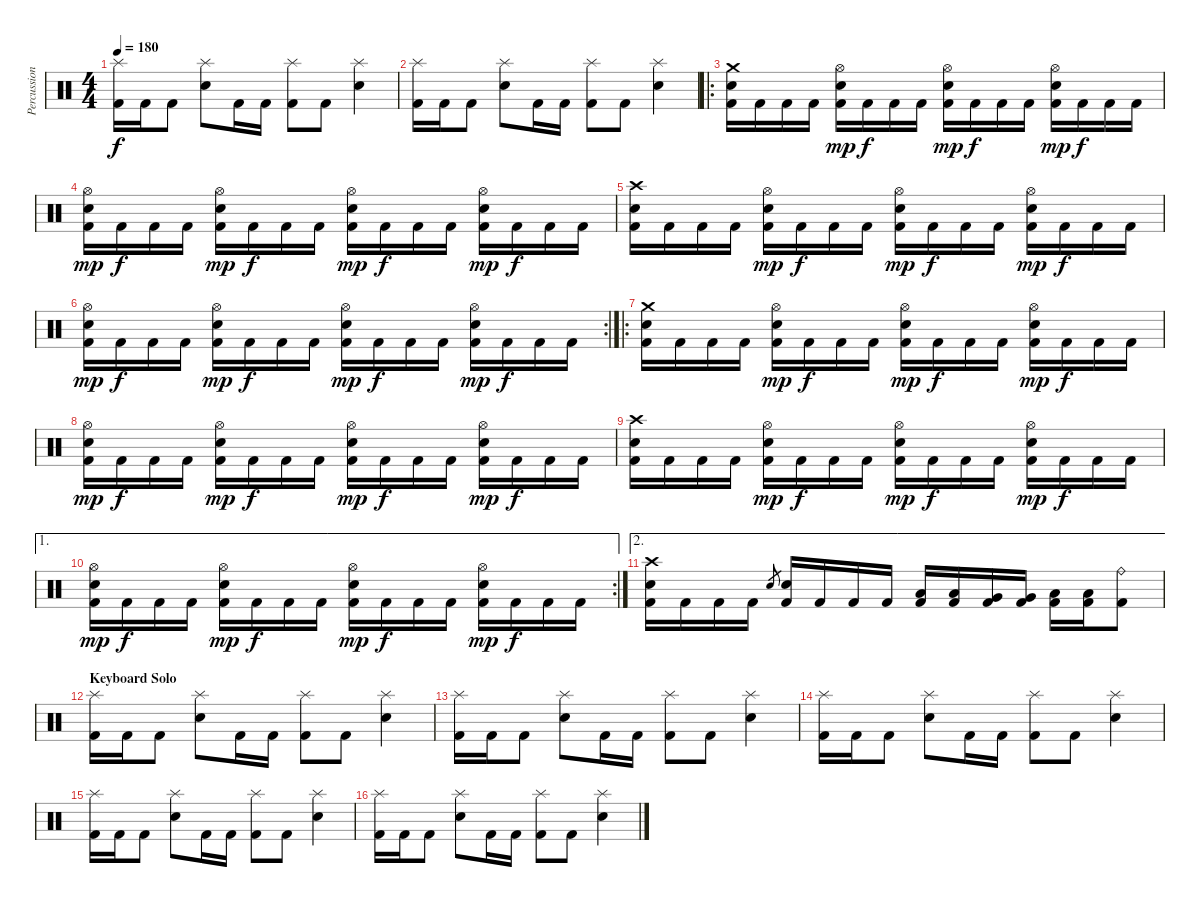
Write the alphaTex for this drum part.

\track ("Percussion" "Percussion") {instrument percussion}
\staff {score}
\articulation defaults
\ts (4 4)
\tempo 180
\clef neutral
\ks c
("Splash (hit)" "Kick (hit) 2").16{dy f} "Kick (hit) 2".16 "Kick (hit) 2".8 ("Splash (hit)" "Electric Snare (hit)").8 "Kick (hit) 2".16 "Kick (hit) 2".16 ("Splash (hit)" "Kick (hit) 2").8 "Kick (hit) 2".8 ("Splash (hit)" "Electric Snare (hit)").4 |
("Splash (hit)" "Kick (hit) 2").16 "Kick (hit) 2".16 "Kick (hit) 2".8 ("Splash (hit)" "Electric Snare (hit)").8 "Kick (hit) 2".16 "Kick (hit) 2".16 ("Splash (hit)" "Kick (hit) 2").8 "Kick (hit) 2".8 ("Splash (hit)" "Electric Snare (hit)").4 |
\ro
("Crash medium (hit)" "Electric Snare (hit)" "Kick (hit) 2").16 "Kick (hit) 2".16 "Kick (hit) 2".16 "Kick (hit) 2".16 ("Hi-Hat (open)" "Electric Snare (hit)" "Kick (hit) 2").16{dy mp} "Kick (hit) 2".16{dy f} "Kick (hit) 2".16 "Kick (hit) 2".16 ("Hi-Hat (open)" "Electric Snare (hit)" "Kick (hit) 2").16{dy mp} "Kick (hit) 2".16{dy f} "Kick (hit) 2".16 "Kick (hit) 2".16 ("Hi-Hat (open)" "Electric Snare (hit)" "Kick (hit) 2").16{dy mp} "Kick (hit) 2".16{dy f} "Kick (hit) 2".16 "Kick (hit) 2".16 |
("Hi-Hat (open)" "Electric Snare (hit)" "Kick (hit) 2").16{dy mp} "Kick (hit) 2".16{dy f} "Kick (hit) 2".16 "Kick (hit) 2".16 ("Hi-Hat (open)" "Electric Snare (hit)" "Kick (hit) 2").16{dy mp} "Kick (hit) 2".16{dy f} "Kick (hit) 2".16 "Kick (hit) 2".16 ("Hi-Hat (open)" "Electric Snare (hit)" "Kick (hit) 2").16{dy mp} "Kick (hit) 2".16{dy f} "Kick (hit) 2".16 "Kick (hit) 2".16 ("Hi-Hat (open)" "Electric Snare (hit)" "Kick (hit) 2").16{dy mp} "Kick (hit) 2".16{dy f} "Kick (hit) 2".16 "Kick (hit) 2".16 |
("Crash high (hit)" "Electric Snare (hit)" "Kick (hit) 2").16 "Kick (hit) 2".16 "Kick (hit) 2".16 "Kick (hit) 2".16 ("Hi-Hat (open)" "Electric Snare (hit)" "Kick (hit) 2").16{dy mp} "Kick (hit) 2".16{dy f} "Kick (hit) 2".16 "Kick (hit) 2".16 ("Hi-Hat (open)" "Electric Snare (hit)" "Kick (hit) 2").16{dy mp} "Kick (hit) 2".16{dy f} "Kick (hit) 2".16 "Kick (hit) 2".16 ("Hi-Hat (open)" "Electric Snare (hit)" "Kick (hit) 2").16{dy mp} "Kick (hit) 2".16{dy f} "Kick (hit) 2".16 "Kick (hit) 2".16 |
\rc 2
("Hi-Hat (open)" "Electric Snare (hit)" "Kick (hit) 2").16{dy mp} "Kick (hit) 2".16{dy f} "Kick (hit) 2".16 "Kick (hit) 2".16 ("Hi-Hat (open)" "Electric Snare (hit)" "Kick (hit) 2").16{dy mp} "Kick (hit) 2".16{dy f} "Kick (hit) 2".16 "Kick (hit) 2".16 ("Hi-Hat (open)" "Electric Snare (hit)" "Kick (hit) 2").16{dy mp} "Kick (hit) 2".16{dy f} "Kick (hit) 2".16 "Kick (hit) 2".16 ("Hi-Hat (open)" "Electric Snare (hit)" "Kick (hit) 2").16{dy mp} "Kick (hit) 2".16{dy f} "Kick (hit) 2".16 "Kick (hit) 2".16 |
\ro
("Crash medium (hit)" "Electric Snare (hit)" "Kick (hit) 2").16 "Kick (hit) 2".16 "Kick (hit) 2".16 "Kick (hit) 2".16 ("Hi-Hat (open)" "Electric Snare (hit)" "Kick (hit) 2").16{dy mp} "Kick (hit) 2".16{dy f} "Kick (hit) 2".16 "Kick (hit) 2".16 ("Hi-Hat (open)" "Electric Snare (hit)" "Kick (hit) 2").16{dy mp} "Kick (hit) 2".16{dy f} "Kick (hit) 2".16 "Kick (hit) 2".16 ("Hi-Hat (open)" "Electric Snare (hit)" "Kick (hit) 2").16{dy mp} "Kick (hit) 2".16{dy f} "Kick (hit) 2".16 "Kick (hit) 2".16 |
("Hi-Hat (open)" "Electric Snare (hit)" "Kick (hit) 2").16{dy mp} "Kick (hit) 2".16{dy f} "Kick (hit) 2".16 "Kick (hit) 2".16 ("Hi-Hat (open)" "Electric Snare (hit)" "Kick (hit) 2").16{dy mp} "Kick (hit) 2".16{dy f} "Kick (hit) 2".16 "Kick (hit) 2".16 ("Hi-Hat (open)" "Electric Snare (hit)" "Kick (hit) 2").16{dy mp} "Kick (hit) 2".16{dy f} "Kick (hit) 2".16 "Kick (hit) 2".16 ("Hi-Hat (open)" "Electric Snare (hit)" "Kick (hit) 2").16{dy mp} "Kick (hit) 2".16{dy f} "Kick (hit) 2".16 "Kick (hit) 2".16 |
("Crash high (hit)" "Electric Snare (hit)" "Kick (hit) 2").16 "Kick (hit) 2".16 "Kick (hit) 2".16 "Kick (hit) 2".16 ("Hi-Hat (open)" "Electric Snare (hit)" "Kick (hit) 2").16{dy mp} "Kick (hit) 2".16{dy f} "Kick (hit) 2".16 "Kick (hit) 2".16 ("Hi-Hat (open)" "Electric Snare (hit)" "Kick (hit) 2").16{dy mp} "Kick (hit) 2".16{dy f} "Kick (hit) 2".16 "Kick (hit) 2".16 ("Hi-Hat (open)" "Electric Snare (hit)" "Kick (hit) 2").16{dy mp} "Kick (hit) 2".16{dy f} "Kick (hit) 2".16 "Kick (hit) 2".16 |
\ae 1
\rc 2
("Hi-Hat (open)" "Electric Snare (hit)" "Kick (hit) 2").16{dy mp} "Kick (hit) 2".16{dy f} "Kick (hit) 2".16 "Kick (hit) 2".16 ("Hi-Hat (open)" "Electric Snare (hit)" "Kick (hit) 2").16{dy mp} "Kick (hit) 2".16{dy f} "Kick (hit) 2".16 "Kick (hit) 2".16 ("Hi-Hat (open)" "Electric Snare (hit)" "Kick (hit) 2").16{dy mp} "Kick (hit) 2".16{dy f} "Kick (hit) 2".16 "Kick (hit) 2".16 ("Hi-Hat (open)" "Electric Snare (hit)" "Kick (hit) 2").16{dy mp} "Kick (hit) 2".16{dy f} "Kick (hit) 2".16 "Kick (hit) 2".16 |
\ae 2
("Crash high (hit)" "Electric Snare (hit)" "Kick (hit) 2").16 "Kick (hit) 2".16 "Kick (hit) 2".16 "Kick (hit) 2".16 "Electric Snare (hit)".8{gr} ("Electric Snare (hit)" "Kick (hit) 2").16 "Kick (hit) 2".16 "Kick (hit) 2".16 "Kick (hit) 2".16 ("Low Tom (hit)" "Kick (hit) 2").16 ("Low Tom (hit)" "Kick (hit) 2").16 ("Very Low Tom (hit)" "Kick (hit) 2").16 ("Very Low Tom (hit)" "Kick (hit) 2").16 ("Low Floor Tom (hit)" "Kick (hit) 2").16 ("Low Floor Tom (hit)" "Kick (hit) 2").16 ("Ride (bell)" "Kick (hit) 2").8 |
\section ("" "Keyboard Solo")
("Splash (hit)" "Kick (hit) 2").16 "Kick (hit) 2".16 "Kick (hit) 2".8 ("Splash (hit)" "Electric Snare (hit)").8 "Kick (hit) 2".16 "Kick (hit) 2".16 ("Splash (hit)" "Kick (hit) 2").8 "Kick (hit) 2".8 ("Splash (hit)" "Electric Snare (hit)").4 |
("Splash (hit)" "Kick (hit) 2").16 "Kick (hit) 2".16 "Kick (hit) 2".8 ("Splash (hit)" "Electric Snare (hit)").8 "Kick (hit) 2".16 "Kick (hit) 2".16 ("Splash (hit)" "Kick (hit) 2").8 "Kick (hit) 2".8 ("Splash (hit)" "Electric Snare (hit)").4 |
("Splash (hit)" "Kick (hit) 2").16 "Kick (hit) 2".16 "Kick (hit) 2".8 ("Splash (hit)" "Electric Snare (hit)").8 "Kick (hit) 2".16 "Kick (hit) 2".16 ("Splash (hit)" "Kick (hit) 2").8 "Kick (hit) 2".8 ("Splash (hit)" "Electric Snare (hit)").4 |
("Splash (hit)" "Kick (hit) 2").16 "Kick (hit) 2".16 "Kick (hit) 2".8 ("Splash (hit)" "Electric Snare (hit)").8 "Kick (hit) 2".16 "Kick (hit) 2".16 ("Splash (hit)" "Kick (hit) 2").8 "Kick (hit) 2".8 ("Splash (hit)" "Electric Snare (hit)").4 |
("Splash (hit)" "Kick (hit) 2").16 "Kick (hit) 2".16 "Kick (hit) 2".8 ("Splash (hit)" "Electric Snare (hit)").8 "Kick (hit) 2".16 "Kick (hit) 2".16 ("Splash (hit)" "Kick (hit) 2").8 "Kick (hit) 2".8 ("Splash (hit)" "Electric Snare (hit)").4
